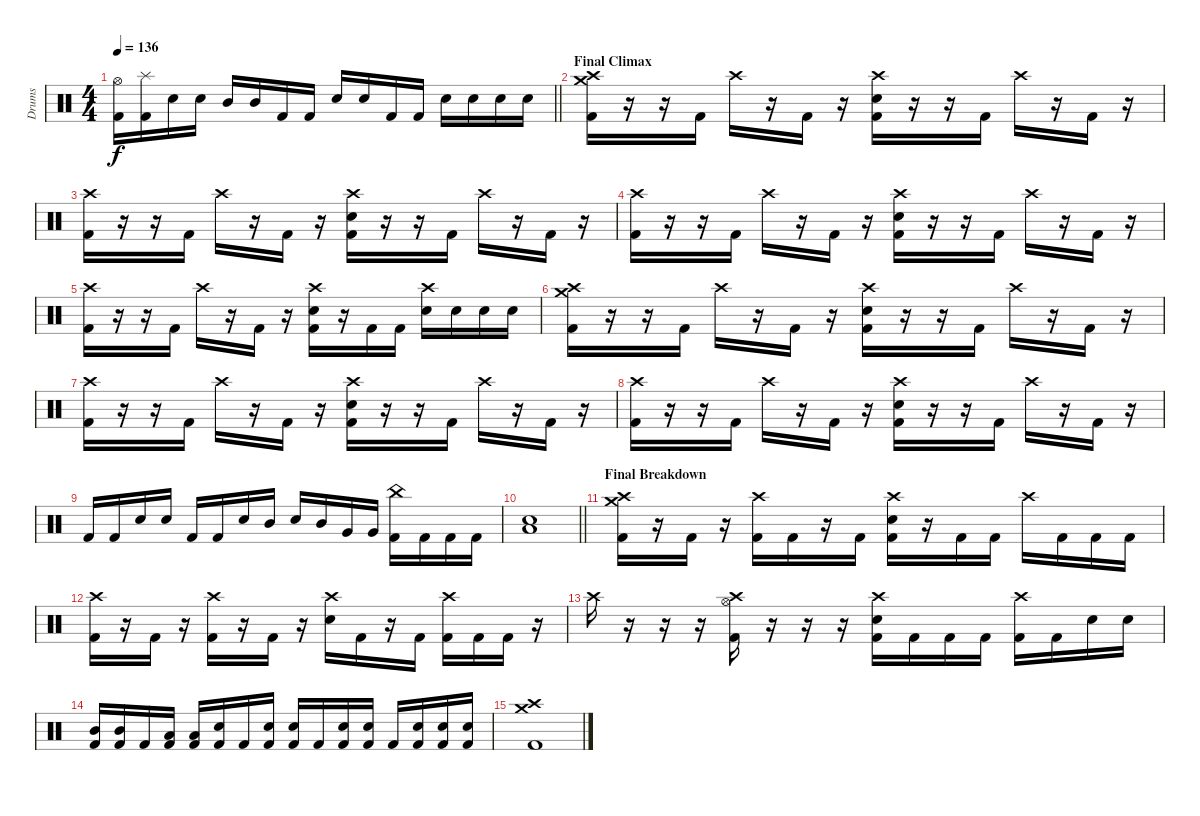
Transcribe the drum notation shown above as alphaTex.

\track ("Drums" "Drums") {instrument percussion}
\staff {score}
\articulation defaults
\ts (4 4)
\tempo 136
\clef neutral
\barLineRight lightlight
\ks c
("Hi-Hat (open)" "Kick (hit) 2").16{dy f} ("Splash (hit)" "Kick (hit) 2").16 "Electric Snare (hit)".16 "Electric Snare (hit)".16 "Mid Tom (hit)".16 "Mid Tom (hit)".16 "Kick (hit) 2".16 "Kick (hit) 2".16 "Electric Snare (hit)".16 "Electric Snare (hit)".16 "Kick (hit) 2".16 "Kick (hit) 2".16 "Electric Snare (hit)".16 "Electric Snare (hit)".16 "Electric Snare (hit)".16 "Electric Snare (hit)".16 |
\section ("" "Final Climax")
("Crash medium (hit)" "Crash high (hit)" "Kick (hit) 2").16 r.16 r.16 "Kick (hit) 2".16 "Crash high (hit)".16 r.16 "Kick (hit) 2".16 r.16 ("Crash high (hit)" "Electric Snare (hit)" "Kick (hit) 2").16 r.16 r.16 "Kick (hit) 2".16 "Crash high (hit)".16 r.16 "Kick (hit) 2".16 r.16 |
("Crash high (hit)" "Kick (hit) 2").16 r.16 r.16 "Kick (hit) 2".16 "Crash high (hit)".16 r.16 "Kick (hit) 2".16 r.16 ("Crash high (hit)" "Electric Snare (hit)" "Kick (hit) 2").16 r.16 r.16 "Kick (hit) 2".16 "Crash high (hit)".16 r.16 "Kick (hit) 2".16 r.16 |
("Crash high (hit)" "Kick (hit) 2").16 r.16 r.16 "Kick (hit) 2".16 "Crash high (hit)".16 r.16 "Kick (hit) 2".16 r.16 ("Crash high (hit)" "Electric Snare (hit)" "Kick (hit) 2").16 r.16 r.16 "Kick (hit) 2".16 "Crash high (hit)".16 r.16 "Kick (hit) 2".16 r.16 |
("Crash high (hit)" "Kick (hit) 2").16 r.16 r.16 "Kick (hit) 2".16 "Crash high (hit)".16 r.16 "Kick (hit) 2".16 r.16 ("Crash high (hit)" "Electric Snare (hit)" "Kick (hit) 2").16 r.16 "Kick (hit) 2".16 "Kick (hit) 2".16 ("Crash high (hit)" "Electric Snare (hit)").16 "Electric Snare (hit)".16 "Electric Snare (hit)".16 "Electric Snare (hit)".16 |
("Crash medium (hit)" "Crash high (hit)" "Kick (hit) 2").16 r.16 r.16 "Kick (hit) 2".16 "Crash high (hit)".16 r.16 "Kick (hit) 2".16 r.16 ("Crash high (hit)" "Electric Snare (hit)" "Kick (hit) 2").16 r.16 r.16 "Kick (hit) 2".16 "Crash high (hit)".16 r.16 "Kick (hit) 2".16 r.16 |
("Crash high (hit)" "Kick (hit) 2").16 r.16 r.16 "Kick (hit) 2".16 "Crash high (hit)".16 r.16 "Kick (hit) 2".16 r.16 ("Crash high (hit)" "Electric Snare (hit)" "Kick (hit) 2").16 r.16 r.16 "Kick (hit) 2".16 "Crash high (hit)".16 r.16 "Kick (hit) 2".16 r.16 |
("Crash high (hit)" "Kick (hit) 2").16 r.16 r.16 "Kick (hit) 2".16 "Crash high (hit)".16 r.16 "Kick (hit) 2".16 r.16 ("Crash high (hit)" "Electric Snare (hit)" "Kick (hit) 2").16 r.16 r.16 "Kick (hit) 2".16 "Crash high (hit)".16 r.16 "Kick (hit) 2".16 r.16 |
"Kick (hit) 2".16 "Kick (hit) 2".16 "Electric Snare (hit)".16 "Electric Snare (hit)".16 "Kick (hit) 2".16 "Kick (hit) 2".16 "Electric Snare (hit)".16 "Mid Tom (hit)".16 "Electric Snare (hit)".16 "Mid Tom (hit)".16 "Very Low Tom (hit)".16 "Very Low Tom (hit)".16 ("China (hit)" "Kick (hit) 2").16 "Kick (hit) 2".16 "Kick (hit) 2".16 "Kick (hit) 2".16 |
\barLineRight lightlight
("Electric Snare (hit)" "Low Floor Tom (hit)").1 |
\section ("" "Final Breakdown")
("Crash medium (hit)" "Crash high (hit)" "Kick (hit) 2").16 r.16 "Kick (hit) 2".16 r.16 ("Crash high (hit)" "Kick (hit) 2").16 "Kick (hit) 2".16 r.16 "Kick (hit) 2".16 ("Crash high (hit)" "Electric Snare (hit)" "Kick (hit) 2").16 r.16 "Kick (hit) 2".16 "Kick (hit) 2".16 "Crash high (hit)".16 "Kick (hit) 2".16 "Kick (hit) 2".16 "Kick (hit) 2".16 |
("Crash high (hit)" "Kick (hit) 2").16 r.16 "Kick (hit) 2".16 r.16 ("Crash high (hit)" "Kick (hit) 2").16 r.16 "Kick (hit) 2".16 r.16 ("Crash high (hit)" "Electric Snare (hit)").16 "Kick (hit) 2".16 r.16 "Kick (hit) 2".16 ("Crash high (hit)" "Kick (hit) 2").16 "Kick (hit) 2".16 "Kick (hit) 2".16 r.16 |
"Crash high (hit)".16 r.16 r.16 r.16 ("Crash high (hit)" "Hi-Hat (open)" "Kick (hit) 2").16 r.16 r.16 r.16 ("Crash high (hit)" "Electric Snare (hit)" "Kick (hit) 2").16 "Kick (hit) 2".16 "Kick (hit) 2".16 "Kick (hit) 2".16 ("Crash high (hit)" "Kick (hit) 2").16 "Kick (hit) 2".16 "Electric Snare (hit)".16 "Electric Snare (hit)".16 |
("Mid Tom (hit)" "Kick (hit) 2").16 ("Mid Tom (hit)" "Kick (hit) 2").16 "Kick (hit) 2".16 ("Low Tom (hit)" "Kick (hit) 2").16 ("Low Tom (hit)" "Kick (hit) 2").16 ("Electric Snare (hit)" "Kick (hit) 2").16 "Kick (hit) 2".16 ("Electric Snare (hit)" "Kick (hit) 2").16 ("Electric Snare (hit)" "Kick (hit) 2").16 "Kick (hit) 2".16 ("Electric Snare (hit)" "Kick (hit) 2").16 ("Electric Snare (hit)" "Kick (hit) 2").16 "Kick (hit) 2".16 ("Electric Snare (hit)" "Kick (hit) 2").16 ("Electric Snare (hit)" "Kick (hit) 2").16 ("Electric Snare (hit)" "Kick (hit) 2").16 |
("Crash medium (hit)" "Crash high (hit)" "Kick (hit) 2").1
